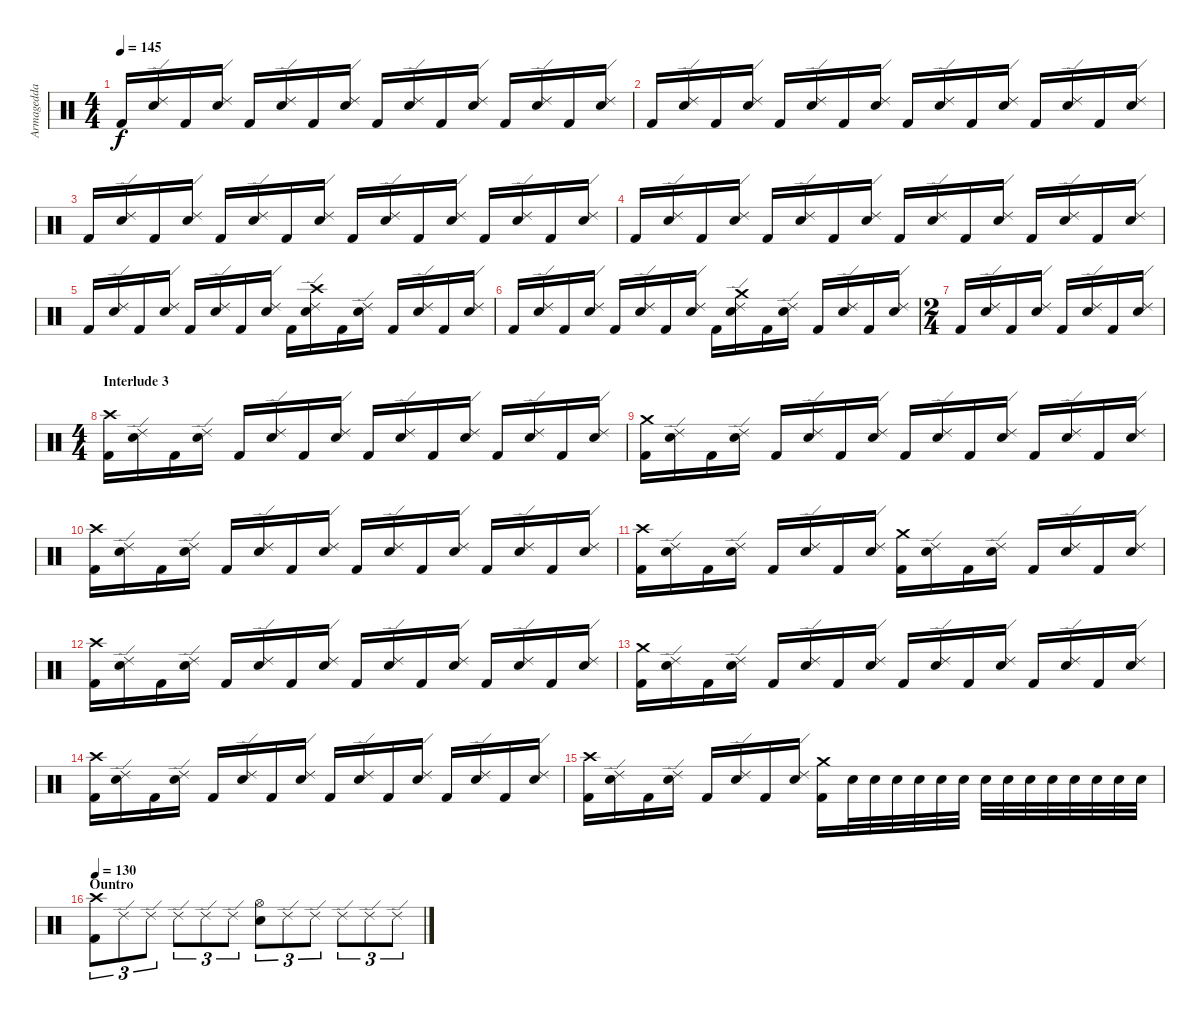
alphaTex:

\track ("Armagedda" "Armagedda") {instrument percussion}
\staff {score}
\articulation defaults
\ts (4 4)
\tempo 145
\clef neutral
\ks c "Kick (hit) 2".16{dy f}
("Ride (edge) 2" "Electric Snare (hit)").16 "Kick (hit) 2".16 ("Ride (edge) 2" "Electric Snare (hit)").16 "Kick (hit) 2".16 ("Ride (edge) 2" "Electric Snare (hit)").16 "Kick (hit) 2".16 ("Ride (edge) 2" "Electric Snare (hit)").16 "Kick (hit) 2".16 ("Ride (edge) 2" "Electric Snare (hit)").16 "Kick (hit) 2".16 ("Ride (edge) 2" "Electric Snare (hit)").16 "Kick (hit) 2".16 ("Ride (edge) 2" "Electric Snare (hit)").16 "Kick (hit) 2".16 ("Ride (edge) 2" "Electric Snare (hit)").16 |
"Kick (hit) 2".16 ("Ride (edge) 2" "Electric Snare (hit)").16 "Kick (hit) 2".16 ("Ride (edge) 2" "Electric Snare (hit)").16 "Kick (hit) 2".16 ("Ride (edge) 2" "Electric Snare (hit)").16 "Kick (hit) 2".16 ("Ride (edge) 2" "Electric Snare (hit)").16 "Kick (hit) 2".16 ("Ride (edge) 2" "Electric Snare (hit)").16 "Kick (hit) 2".16 ("Ride (edge) 2" "Electric Snare (hit)").16 "Kick (hit) 2".16 ("Ride (edge) 2" "Electric Snare (hit)").16 "Kick (hit) 2".16 ("Ride (edge) 2" "Electric Snare (hit)").16 |
"Kick (hit) 2".16 ("Ride (edge) 2" "Electric Snare (hit)").16 "Kick (hit) 2".16 ("Ride (edge) 2" "Electric Snare (hit)").16 "Kick (hit) 2".16 ("Ride (edge) 2" "Electric Snare (hit)").16 "Kick (hit) 2".16 ("Ride (edge) 2" "Electric Snare (hit)").16 "Kick (hit) 2".16 ("Ride (edge) 2" "Electric Snare (hit)").16 "Kick (hit) 2".16 ("Ride (edge) 2" "Electric Snare (hit)").16 "Kick (hit) 2".16 ("Ride (edge) 2" "Electric Snare (hit)").16 "Kick (hit) 2".16 ("Ride (edge) 2" "Electric Snare (hit)").16 |
"Kick (hit) 2".16 ("Ride (edge) 2" "Electric Snare (hit)").16 "Kick (hit) 2".16 ("Ride (edge) 2" "Electric Snare (hit)").16 "Kick (hit) 2".16 ("Ride (edge) 2" "Electric Snare (hit)").16 "Kick (hit) 2".16 ("Ride (edge) 2" "Electric Snare (hit)").16 "Kick (hit) 2".16 ("Ride (edge) 2" "Electric Snare (hit)").16 "Kick (hit) 2".16 ("Ride (edge) 2" "Electric Snare (hit)").16 "Kick (hit) 2".16 ("Ride (edge) 2" "Electric Snare (hit)").16 "Kick (hit) 2".16 ("Ride (edge) 2" "Electric Snare (hit)").16 |
"Kick (hit) 2".16 ("Ride (edge) 2" "Electric Snare (hit)").16 "Kick (hit) 2".16 ("Ride (edge) 2" "Electric Snare (hit)").16 "Kick (hit) 2".16 ("Ride (edge) 2" "Electric Snare (hit)").16 "Kick (hit) 2".16 ("Ride (edge) 2" "Electric Snare (hit)").16 "Kick (hit) 2".16 ("Crash high (hit)" "Ride (edge) 2" "Electric Snare (hit)").16 "Kick (hit) 2".16 ("Ride (edge) 2" "Electric Snare (hit)").16 "Kick (hit) 2".16 ("Ride (edge) 2" "Electric Snare (hit)").16 "Kick (hit) 2".16 ("Ride (edge) 2" "Electric Snare (hit)").16 |
"Kick (hit) 2".16 ("Ride (edge) 2" "Electric Snare (hit)").16 "Kick (hit) 2".16 ("Ride (edge) 2" "Electric Snare (hit)").16 "Kick (hit) 2".16 ("Ride (edge) 2" "Electric Snare (hit)").16 "Kick (hit) 2".16 ("Ride (edge) 2" "Electric Snare (hit)").16 "Kick (hit) 2".16 ("Crash medium (hit)" "Ride (edge) 2" "Electric Snare (hit)").16 "Kick (hit) 2".16 ("Ride (edge) 2" "Electric Snare (hit)").16 "Kick (hit) 2".16 ("Ride (edge) 2" "Electric Snare (hit)").16 "Kick (hit) 2".16 ("Ride (edge) 2" "Electric Snare (hit)").16 |
\ts (2 4)
"Kick (hit) 2".16 ("Ride (edge) 2" "Electric Snare (hit)").16 "Kick (hit) 2".16 ("Ride (edge) 2" "Electric Snare (hit)").16 "Kick (hit) 2".16 ("Ride (edge) 2" "Electric Snare (hit)").16 "Kick (hit) 2".16 ("Ride (edge) 2" "Electric Snare (hit)").16 |
\ts (4 4)
\section ("" "Interlude 3 ")
("Crash high (hit)" "Kick (hit) 2").16 ("Ride (edge) 2" "Electric Snare (hit)").16 "Kick (hit) 2".16 ("Ride (edge) 2" "Electric Snare (hit)").16 "Kick (hit) 2".16 ("Ride (edge) 2" "Electric Snare (hit)").16 "Kick (hit) 2".16 ("Ride (edge) 2" "Electric Snare (hit)").16 "Kick (hit) 2".16 ("Ride (edge) 2" "Electric Snare (hit)").16 "Kick (hit) 2".16 ("Ride (edge) 2" "Electric Snare (hit)").16 "Kick (hit) 2".16 ("Ride (edge) 2" "Electric Snare (hit)").16 "Kick (hit) 2".16 ("Ride (edge) 2" "Electric Snare (hit)").16 |
("Crash medium (hit)" "Kick (hit) 2").16 ("Ride (edge) 2" "Electric Snare (hit)").16 "Kick (hit) 2".16 ("Ride (edge) 2" "Electric Snare (hit)").16 "Kick (hit) 2".16 ("Ride (edge) 2" "Electric Snare (hit)").16 "Kick (hit) 2".16 ("Ride (edge) 2" "Electric Snare (hit)").16 "Kick (hit) 2".16 ("Ride (edge) 2" "Electric Snare (hit)").16 "Kick (hit) 2".16 ("Ride (edge) 2" "Electric Snare (hit)").16 "Kick (hit) 2".16 ("Ride (edge) 2" "Electric Snare (hit)").16 "Kick (hit) 2".16 ("Ride (edge) 2" "Electric Snare (hit)").16 |
("Crash high (hit)" "Kick (hit) 2").16 ("Ride (edge) 2" "Electric Snare (hit)").16 "Kick (hit) 2".16 ("Ride (edge) 2" "Electric Snare (hit)").16 "Kick (hit) 2".16 ("Ride (edge) 2" "Electric Snare (hit)").16 "Kick (hit) 2".16 ("Ride (edge) 2" "Electric Snare (hit)").16 "Kick (hit) 2".16 ("Ride (edge) 2" "Electric Snare (hit)").16 "Kick (hit) 2".16 ("Ride (edge) 2" "Electric Snare (hit)").16 "Kick (hit) 2".16 ("Ride (edge) 2" "Electric Snare (hit)").16 "Kick (hit) 2".16 ("Ride (edge) 2" "Electric Snare (hit)").16 |
("Crash high (hit)" "Kick (hit) 2").16 ("Ride (edge) 2" "Electric Snare (hit)").16 "Kick (hit) 2".16 ("Ride (edge) 2" "Electric Snare (hit)").16 "Kick (hit) 2".16 ("Ride (edge) 2" "Electric Snare (hit)").16 "Kick (hit) 2".16 ("Ride (edge) 2" "Electric Snare (hit)").16 ("Crash medium (hit)" "Kick (hit) 2").16 ("Ride (edge) 2" "Electric Snare (hit)").16 "Kick (hit) 2".16 ("Ride (edge) 2" "Electric Snare (hit)").16 "Kick (hit) 2".16 ("Ride (edge) 2" "Electric Snare (hit)").16 "Kick (hit) 2".16 ("Ride (edge) 2" "Electric Snare (hit)").16 |
("Crash high (hit)" "Kick (hit) 2").16 ("Ride (edge) 2" "Electric Snare (hit)").16 "Kick (hit) 2".16 ("Ride (edge) 2" "Electric Snare (hit)").16 "Kick (hit) 2".16 ("Ride (edge) 2" "Electric Snare (hit)").16 "Kick (hit) 2".16 ("Ride (edge) 2" "Electric Snare (hit)").16 "Kick (hit) 2".16 ("Ride (edge) 2" "Electric Snare (hit)").16 "Kick (hit) 2".16 ("Ride (edge) 2" "Electric Snare (hit)").16 "Kick (hit) 2".16 ("Ride (edge) 2" "Electric Snare (hit)").16 "Kick (hit) 2".16 ("Ride (edge) 2" "Electric Snare (hit)").16 |
("Crash medium (hit)" "Kick (hit) 2").16 ("Ride (edge) 2" "Electric Snare (hit)").16 "Kick (hit) 2".16 ("Ride (edge) 2" "Electric Snare (hit)").16 "Kick (hit) 2".16 ("Ride (edge) 2" "Electric Snare (hit)").16 "Kick (hit) 2".16 ("Ride (edge) 2" "Electric Snare (hit)").16 "Kick (hit) 2".16 ("Ride (edge) 2" "Electric Snare (hit)").16 "Kick (hit) 2".16 ("Ride (edge) 2" "Electric Snare (hit)").16 "Kick (hit) 2".16 ("Ride (edge) 2" "Electric Snare (hit)").16 "Kick (hit) 2".16 ("Ride (edge) 2" "Electric Snare (hit)").16 |
("Crash high (hit)" "Kick (hit) 2").16 ("Ride (edge) 2" "Electric Snare (hit)").16 "Kick (hit) 2".16 ("Ride (edge) 2" "Electric Snare (hit)").16 "Kick (hit) 2".16 ("Ride (edge) 2" "Electric Snare (hit)").16 "Kick (hit) 2".16 ("Ride (edge) 2" "Electric Snare (hit)").16 "Kick (hit) 2".16 ("Ride (edge) 2" "Electric Snare (hit)").16 "Kick (hit) 2".16 ("Ride (edge) 2" "Electric Snare (hit)").16 "Kick (hit) 2".16 ("Ride (edge) 2" "Electric Snare (hit)").16 "Kick (hit) 2".16 ("Ride (edge) 2" "Electric Snare (hit)").16 |
("Crash high (hit)" "Kick (hit) 2").16 ("Ride (edge) 2" "Electric Snare (hit)").16 "Kick (hit) 2".16 ("Ride (edge) 2" "Electric Snare (hit)").16 "Kick (hit) 2".16 ("Ride (edge) 2" "Electric Snare (hit)").16 "Kick (hit) 2".16 ("Ride (edge) 2" "Electric Snare (hit)").16 ("Crash medium (hit)" "Kick (hit) 2").16 "Electric Snare (hit)".32 "Electric Snare (hit)".32 "Electric Snare (hit)".32 "Electric Snare (hit)".32 "Electric Snare (hit)".32 "Electric Snare (hit)".32 "Electric Snare (hit)".32 "Electric Snare (hit)".32 "Electric Snare (hit)".32 "Electric Snare (hit)".32 "Electric Snare (hit)".32 "Electric Snare (hit)".32 "Electric Snare (hit)".32 "Electric Snare (hit)".32 |
\section ("" "Ountro")
\tempo 130
("Crash high (hit)" "Kick (hit) 2").8{tu (3 2)} "Ride (edge) 2".8{tu (3 2)} "Ride (edge) 2".8{tu (3 2)} "Ride (edge) 2".8{tu (3 2)} "Ride (edge) 2".8{tu (3 2)} "Ride (edge) 2".8{tu (3 2)} ("Hi-Hat (open)" "Electric Snare (hit)").8{tu (3 2)} "Ride (edge) 2".8{tu (3 2)} "Ride (edge) 2".8{tu (3 2)} "Ride (edge) 2".8{tu (3 2)} "Ride (edge) 2".8{tu (3 2)} "Ride (edge) 2".8{tu (3 2)}
